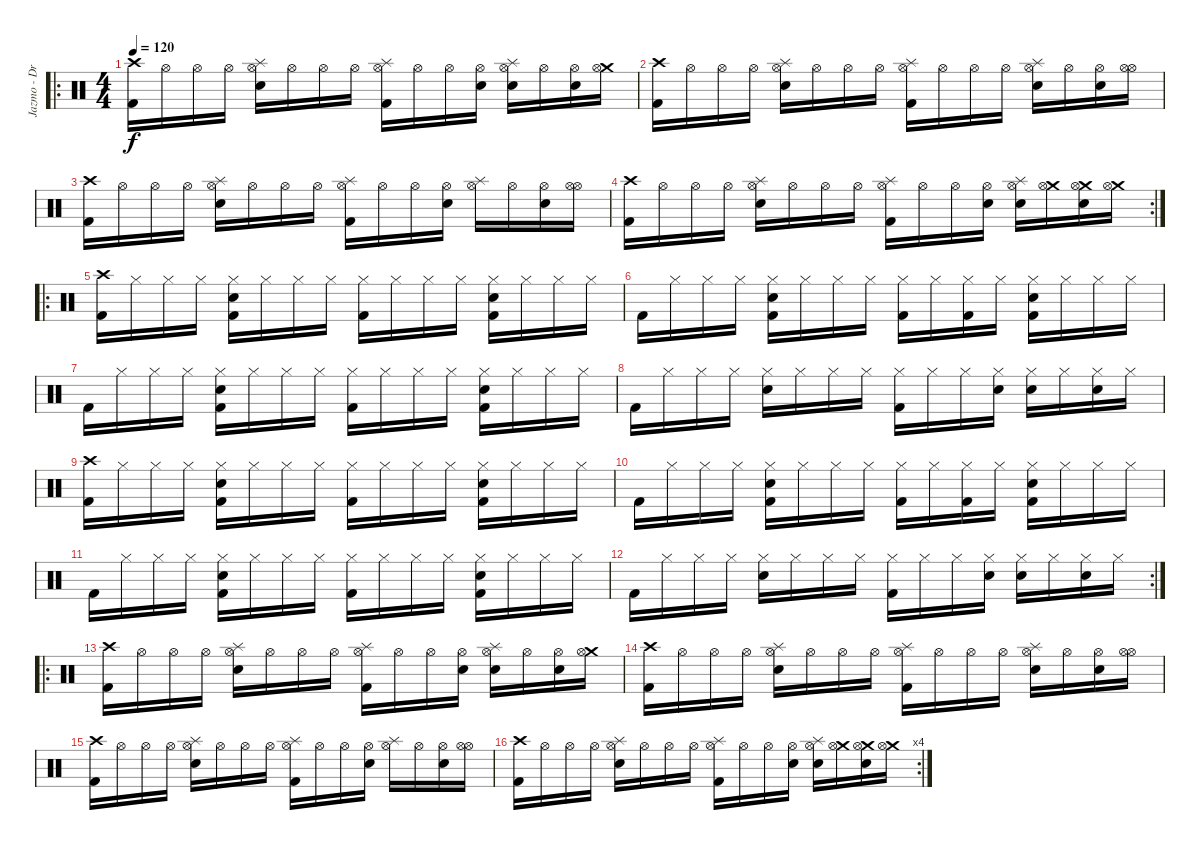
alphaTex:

\track ("Jazmo - Drums" "Jazmo - Dr") {instrument percussion}
\staff {score}
\articulation defaults
\ro
\ts (4 4)
\tempo 120
\clef neutral
\ks c
("Crash high (hit)" "Kick (hit) 2").16{dy f} "Hi-Hat (open)".16 "Hi-Hat (open)".16 "Hi-Hat (open)".16 ("Splash (hit)" "Hi-Hat (open)" "Electric Snare (hit)").16 "Hi-Hat (open)".16 "Hi-Hat (open)".16 "Hi-Hat (open)".16 ("Splash (hit)" "Hi-Hat (open)" "Kick (hit) 2").16 "Hi-Hat (open)".16 "Hi-Hat (open)".16 ("Hi-Hat (open)" "Electric Snare (hit)").16 ("Splash (hit)" "Hi-Hat (open)" "Electric Snare (hit)").16 "Hi-Hat (open)".16 ("Hi-Hat (open)" "Electric Snare (hit)").16 ("Crash medium (hit)" "Hi-Hat (open)").16 |
("Crash high (hit)" "Kick (hit) 2").16 "Hi-Hat (open)".16 "Hi-Hat (open)".16 "Hi-Hat (open)".16 ("Splash (hit)" "Hi-Hat (open)" "Electric Snare (hit)").16 "Hi-Hat (open)".16 "Hi-Hat (open)".16 "Hi-Hat (open)".16 ("Splash (hit)" "Hi-Hat (open)" "Kick (hit) 2").16 "Hi-Hat (open)".16 "Hi-Hat (open)".16 "Hi-Hat (open)".16 ("Splash (hit)" "Hi-Hat (open)" "Electric Snare (hit)").16 "Hi-Hat (open)".16 ("Hi-Hat (open)" "Electric Snare (hit)").16 ("Hi-Hat (open)" "Hi-Hat (open)").16 |
("Crash high (hit)" "Kick (hit) 2").16 "Hi-Hat (open)".16 "Hi-Hat (open)".16 "Hi-Hat (open)".16 ("Splash (hit)" "Hi-Hat (open)" "Electric Snare (hit)").16 "Hi-Hat (open)".16 "Hi-Hat (open)".16 "Hi-Hat (open)".16 ("Splash (hit)" "Hi-Hat (open)" "Kick (hit) 2").16 "Hi-Hat (open)".16 "Hi-Hat (open)".16 ("Hi-Hat (open)" "Electric Snare (hit)").16 ("Splash (hit)" "Hi-Hat (open)").16 "Hi-Hat (open)".16 ("Hi-Hat (open)" "Electric Snare (hit)").16 ("Hi-Hat (open)" "Hi-Hat (open)").16 |
\rc 2
("Crash high (hit)" "Kick (hit) 2").16 "Hi-Hat (open)".16 "Hi-Hat (open)".16 "Hi-Hat (open)".16 ("Splash (hit)" "Hi-Hat (open)" "Electric Snare (hit)").16 "Hi-Hat (open)".16 "Hi-Hat (open)".16 "Hi-Hat (open)".16 ("Splash (hit)" "Hi-Hat (open)" "Kick (hit) 2").16 "Hi-Hat (open)".16 "Hi-Hat (open)".16 ("Hi-Hat (open)" "Electric Snare (hit)").16 ("Splash (hit)" "Hi-Hat (open)" "Electric Snare (hit)").16 ("Crash medium (hit)" "Hi-Hat (open)").16 ("Crash medium (hit)" "Hi-Hat (open)" "Electric Snare (hit)").16 ("Crash medium (hit)" "Hi-Hat (open)").16 |
\ro
("Crash high (hit)" "Kick (hit) 2").16 "Hi-Hat (closed)".16 "Hi-Hat (closed)".16 "Hi-Hat (closed)".16 ("Kick (hit) 2" "Hi-Hat (closed)" "Electric Snare (hit)").16 "Hi-Hat (closed)".16 "Hi-Hat (closed)".16 "Hi-Hat (closed)".16 ("Hi-Hat (closed)" "Kick (hit) 2").16 "Hi-Hat (closed)".16 "Hi-Hat (closed)".16 "Hi-Hat (closed)".16 ("Kick (hit) 2" "Hi-Hat (closed)" "Electric Snare (hit)").16 "Hi-Hat (closed)".16 "Hi-Hat (closed)".16 "Hi-Hat (closed)".16 |
"Kick (hit) 2".16 "Hi-Hat (closed)".16 "Hi-Hat (closed)".16 "Hi-Hat (closed)".16 ("Kick (hit) 2" "Hi-Hat (closed)" "Electric Snare (hit)").16 "Hi-Hat (closed)".16 "Hi-Hat (closed)".16 "Hi-Hat (closed)".16 ("Hi-Hat (closed)" "Kick (hit) 2").16 "Hi-Hat (closed)".16 ("Hi-Hat (closed)" "Kick (hit) 2").16 "Hi-Hat (closed)".16 ("Kick (hit) 2" "Hi-Hat (closed)" "Electric Snare (hit)").16 "Hi-Hat (closed)".16 "Hi-Hat (closed)".16 "Hi-Hat (closed)".16 |
"Kick (hit) 2".16 "Hi-Hat (closed)".16 "Hi-Hat (closed)".16 "Hi-Hat (closed)".16 ("Kick (hit) 2" "Hi-Hat (closed)" "Electric Snare (hit)").16 "Hi-Hat (closed)".16 "Hi-Hat (closed)".16 "Hi-Hat (closed)".16 ("Hi-Hat (closed)" "Kick (hit) 2").16 "Hi-Hat (closed)".16 "Hi-Hat (closed)".16 "Hi-Hat (closed)".16 ("Kick (hit) 2" "Hi-Hat (closed)" "Electric Snare (hit)").16 "Hi-Hat (closed)".16 "Hi-Hat (closed)".16 "Hi-Hat (closed)".16 |
"Kick (hit) 2".16 "Hi-Hat (closed)".16 "Hi-Hat (closed)".16 "Hi-Hat (closed)".16 ("Hi-Hat (closed)" "Electric Snare (hit)").16 "Hi-Hat (closed)".16 "Hi-Hat (closed)".16 "Hi-Hat (closed)".16 ("Hi-Hat (closed)" "Kick (hit) 2").16 "Hi-Hat (closed)".16 "Hi-Hat (closed)".16 ("Hi-Hat (closed)" "Electric Snare (hit)").16 ("Hi-Hat (closed)" "Electric Snare (hit)").16 "Hi-Hat (closed)".16 ("Hi-Hat (closed)" "Electric Snare (hit)").16 "Hi-Hat (closed)".16 |
("Crash high (hit)" "Kick (hit) 2").16 "Hi-Hat (closed)".16 "Hi-Hat (closed)".16 "Hi-Hat (closed)".16 ("Kick (hit) 2" "Hi-Hat (closed)" "Electric Snare (hit)").16 "Hi-Hat (closed)".16 "Hi-Hat (closed)".16 "Hi-Hat (closed)".16 ("Hi-Hat (closed)" "Kick (hit) 2").16 "Hi-Hat (closed)".16 "Hi-Hat (closed)".16 "Hi-Hat (closed)".16 ("Kick (hit) 2" "Hi-Hat (closed)" "Electric Snare (hit)").16 "Hi-Hat (closed)".16 "Hi-Hat (closed)".16 "Hi-Hat (closed)".16 |
"Kick (hit) 2".16 "Hi-Hat (closed)".16 "Hi-Hat (closed)".16 "Hi-Hat (closed)".16 ("Kick (hit) 2" "Hi-Hat (closed)" "Electric Snare (hit)").16 "Hi-Hat (closed)".16 "Hi-Hat (closed)".16 "Hi-Hat (closed)".16 ("Hi-Hat (closed)" "Kick (hit) 2").16 "Hi-Hat (closed)".16 ("Hi-Hat (closed)" "Kick (hit) 2").16 "Hi-Hat (closed)".16 ("Kick (hit) 2" "Hi-Hat (closed)" "Electric Snare (hit)").16 "Hi-Hat (closed)".16 "Hi-Hat (closed)".16 "Hi-Hat (closed)".16 |
"Kick (hit) 2".16 "Hi-Hat (closed)".16 "Hi-Hat (closed)".16 "Hi-Hat (closed)".16 ("Kick (hit) 2" "Hi-Hat (closed)" "Electric Snare (hit)").16 "Hi-Hat (closed)".16 "Hi-Hat (closed)".16 "Hi-Hat (closed)".16 ("Hi-Hat (closed)" "Kick (hit) 2").16 "Hi-Hat (closed)".16 "Hi-Hat (closed)".16 "Hi-Hat (closed)".16 ("Kick (hit) 2" "Hi-Hat (closed)" "Electric Snare (hit)").16 "Hi-Hat (closed)".16 "Hi-Hat (closed)".16 "Hi-Hat (closed)".16 |
\rc 2 "Kick (hit) 2".16 "Hi-Hat (closed)".16 "Hi-Hat (closed)".16 "Hi-Hat (closed)".16
("Hi-Hat (closed)" "Electric Snare (hit)").16 "Hi-Hat (closed)".16 "Hi-Hat (closed)".16 "Hi-Hat (closed)".16 ("Hi-Hat (closed)" "Kick (hit) 2").16 "Hi-Hat (closed)".16 "Hi-Hat (closed)".16 ("Hi-Hat (closed)" "Electric Snare (hit)").16 ("Hi-Hat (closed)" "Electric Snare (hit)").16 "Hi-Hat (closed)".16 ("Hi-Hat (closed)" "Electric Snare (hit)").16 "Hi-Hat (closed)".16 |
\ro
("Crash high (hit)" "Kick (hit) 2").16 "Hi-Hat (open)".16 "Hi-Hat (open)".16 "Hi-Hat (open)".16 ("Splash (hit)" "Hi-Hat (open)" "Electric Snare (hit)").16 "Hi-Hat (open)".16 "Hi-Hat (open)".16 "Hi-Hat (open)".16 ("Splash (hit)" "Hi-Hat (open)" "Kick (hit) 2").16 "Hi-Hat (open)".16 "Hi-Hat (open)".16 ("Hi-Hat (open)" "Electric Snare (hit)").16 ("Splash (hit)" "Hi-Hat (open)" "Electric Snare (hit)").16 "Hi-Hat (open)".16 ("Hi-Hat (open)" "Electric Snare (hit)").16 ("Crash medium (hit)" "Hi-Hat (open)").16 |
("Crash high (hit)" "Kick (hit) 2").16 "Hi-Hat (open)".16 "Hi-Hat (open)".16 "Hi-Hat (open)".16 ("Splash (hit)" "Hi-Hat (open)" "Electric Snare (hit)").16 "Hi-Hat (open)".16 "Hi-Hat (open)".16 "Hi-Hat (open)".16 ("Splash (hit)" "Hi-Hat (open)" "Kick (hit) 2").16 "Hi-Hat (open)".16 "Hi-Hat (open)".16 "Hi-Hat (open)".16 ("Splash (hit)" "Hi-Hat (open)" "Electric Snare (hit)").16 "Hi-Hat (open)".16 ("Hi-Hat (open)" "Electric Snare (hit)").16 ("Hi-Hat (open)" "Hi-Hat (open)").16 |
("Crash high (hit)" "Kick (hit) 2").16 "Hi-Hat (open)".16 "Hi-Hat (open)".16 "Hi-Hat (open)".16 ("Splash (hit)" "Hi-Hat (open)" "Electric Snare (hit)").16 "Hi-Hat (open)".16 "Hi-Hat (open)".16 "Hi-Hat (open)".16 ("Splash (hit)" "Hi-Hat (open)" "Kick (hit) 2").16 "Hi-Hat (open)".16 "Hi-Hat (open)".16 ("Hi-Hat (open)" "Electric Snare (hit)").16 ("Splash (hit)" "Hi-Hat (open)").16 "Hi-Hat (open)".16 ("Hi-Hat (open)" "Electric Snare (hit)").16 ("Hi-Hat (open)" "Hi-Hat (open)").16 |
\rc 4
("Crash high (hit)" "Kick (hit) 2").16 "Hi-Hat (open)".16 "Hi-Hat (open)".16 "Hi-Hat (open)".16 ("Splash (hit)" "Hi-Hat (open)" "Electric Snare (hit)").16 "Hi-Hat (open)".16 "Hi-Hat (open)".16 "Hi-Hat (open)".16 ("Splash (hit)" "Hi-Hat (open)" "Kick (hit) 2").16 "Hi-Hat (open)".16 "Hi-Hat (open)".16 ("Hi-Hat (open)" "Electric Snare (hit)").16 ("Splash (hit)" "Hi-Hat (open)" "Electric Snare (hit)").16 ("Crash medium (hit)" "Hi-Hat (open)").16 ("Crash medium (hit)" "Hi-Hat (open)" "Electric Snare (hit)").16 ("Crash medium (hit)" "Hi-Hat (open)").16
